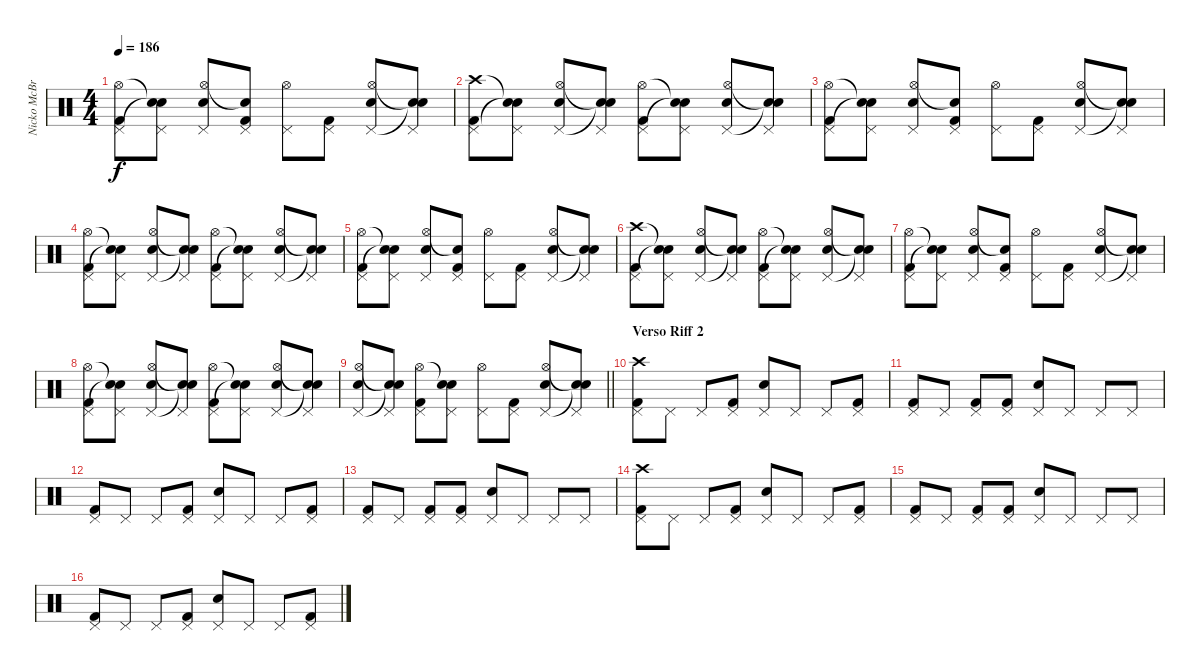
\track ("Nicko McBrain" "Nicko McBr") {instrument percussion}
\staff {score}
\articulation defaults
\ts (4 4)
\tempo 186
\clef neutral
\ks c
("Kick (hit) 2" "Pedal Hi-Hat (hit)" "Hi-Hat (open)").8{dy f} ("Pedal Hi-Hat (hit)" "Snare (hit)"{t} "Snare (hit)"{t}).8 ("Snare (hit) 2" "Pedal Hi-Hat (hit)" "Hi-Hat (open)").8 ("Kick (hit) 2" "Pedal Hi-Hat (hit)" "Snare (hit)"{t}).8 ("Pedal Hi-Hat (hit)" "Hi-Hat (open)").8 ("Kick (hit) 2" "Pedal Hi-Hat (hit)").8 ("Snare (hit) 2" "Pedal Hi-Hat (hit)" "Hi-Hat (open)").8 ("Pedal Hi-Hat (hit)" "Snare (hit)"{t} "Snare (hit)"{t}).8 |
("Kick (hit) 2" "Pedal Hi-Hat (hit)" "Crash high (hit)").8 ("Pedal Hi-Hat (hit)" "Snare (hit)"{t} "Snare (hit)"{t}).8 ("Snare (hit) 2" "Pedal Hi-Hat (hit)" "Hi-Hat (open)").8 ("Pedal Hi-Hat (hit)" "Snare (hit)"{t} "Snare (hit)"{t}).8 ("Kick (hit) 2" "Pedal Hi-Hat (hit)" "Hi-Hat (open)").8 ("Pedal Hi-Hat (hit)" "Snare (hit)"{t} "Snare (hit)"{t}).8 ("Snare (hit) 2" "Pedal Hi-Hat (hit)" "Hi-Hat (open)").8 ("Pedal Hi-Hat (hit)" "Snare (hit)"{t} "Snare (hit)"{t}).8 |
("Kick (hit) 2" "Pedal Hi-Hat (hit)" "Hi-Hat (open)").8 ("Pedal Hi-Hat (hit)" "Snare (hit)"{t} "Snare (hit)"{t}).8 ("Snare (hit) 2" "Pedal Hi-Hat (hit)" "Hi-Hat (open)").8 ("Kick (hit) 2" "Pedal Hi-Hat (hit)" "Snare (hit)"{t}).8 ("Pedal Hi-Hat (hit)" "Hi-Hat (open)").8 ("Kick (hit) 2" "Pedal Hi-Hat (hit)").8 ("Snare (hit) 2" "Pedal Hi-Hat (hit)" "Hi-Hat (open)").8 ("Pedal Hi-Hat (hit)" "Snare (hit)"{t} "Snare (hit)"{t}).8 |
("Kick (hit) 2" "Pedal Hi-Hat (hit)" "Hi-Hat (open)").8 ("Pedal Hi-Hat (hit)" "Snare (hit)"{t} "Snare (hit)"{t}).8 ("Snare (hit) 2" "Pedal Hi-Hat (hit)" "Hi-Hat (open)").8 ("Pedal Hi-Hat (hit)" "Snare (hit)"{t} "Snare (hit)"{t}).8 ("Kick (hit) 2" "Pedal Hi-Hat (hit)" "Hi-Hat (open)").8 ("Pedal Hi-Hat (hit)" "Snare (hit)"{t} "Snare (hit)"{t}).8 ("Snare (hit) 2" "Pedal Hi-Hat (hit)" "Hi-Hat (open)").8 ("Pedal Hi-Hat (hit)" "Snare (hit)"{t} "Snare (hit)"{t}).8 |
("Kick (hit) 2" "Pedal Hi-Hat (hit)" "Hi-Hat (open)").8 ("Pedal Hi-Hat (hit)" "Snare (hit)"{t} "Snare (hit)"{t}).8 ("Snare (hit) 2" "Pedal Hi-Hat (hit)" "Hi-Hat (open)").8 ("Kick (hit) 2" "Pedal Hi-Hat (hit)" "Snare (hit)"{t}).8 ("Pedal Hi-Hat (hit)" "Hi-Hat (open)").8 ("Kick (hit) 2" "Pedal Hi-Hat (hit)").8 ("Snare (hit) 2" "Pedal Hi-Hat (hit)" "Hi-Hat (open)").8 ("Pedal Hi-Hat (hit)" "Snare (hit)"{t} "Snare (hit)"{t}).8 |
("Kick (hit) 2" "Pedal Hi-Hat (hit)" "Crash high (hit)").8 ("Pedal Hi-Hat (hit)" "Snare (hit)"{t} "Snare (hit)"{t}).8 ("Snare (hit) 2" "Pedal Hi-Hat (hit)" "Hi-Hat (open)").8 ("Pedal Hi-Hat (hit)" "Snare (hit)"{t} "Snare (hit)"{t}).8 ("Kick (hit) 2" "Pedal Hi-Hat (hit)" "Hi-Hat (open)").8 ("Pedal Hi-Hat (hit)" "Snare (hit)"{t} "Snare (hit)"{t}).8 ("Snare (hit) 2" "Pedal Hi-Hat (hit)" "Hi-Hat (open)").8 ("Pedal Hi-Hat (hit)" "Snare (hit)"{t} "Snare (hit)"{t}).8 |
("Kick (hit) 2" "Pedal Hi-Hat (hit)" "Hi-Hat (open)").8 ("Pedal Hi-Hat (hit)" "Snare (hit)"{t} "Snare (hit)"{t}).8 ("Snare (hit) 2" "Pedal Hi-Hat (hit)" "Hi-Hat (open)").8 ("Kick (hit) 2" "Pedal Hi-Hat (hit)" "Snare (hit)"{t}).8 ("Pedal Hi-Hat (hit)" "Hi-Hat (open)").8 ("Kick (hit) 2" "Pedal Hi-Hat (hit)").8 ("Snare (hit) 2" "Pedal Hi-Hat (hit)" "Hi-Hat (open)").8 ("Pedal Hi-Hat (hit)" "Snare (hit)"{t} "Snare (hit)"{t}).8 |
("Kick (hit) 2" "Pedal Hi-Hat (hit)" "Hi-Hat (open)").8 ("Pedal Hi-Hat (hit)" "Snare (hit)"{t} "Snare (hit)"{t}).8 ("Snare (hit) 2" "Pedal Hi-Hat (hit)" "Hi-Hat (open)").8 ("Pedal Hi-Hat (hit)" "Snare (hit)"{t} "Snare (hit)"{t}).8 ("Kick (hit) 2" "Pedal Hi-Hat (hit)" "Hi-Hat (open)").8 ("Pedal Hi-Hat (hit)" "Snare (hit)"{t} "Snare (hit)"{t}).8 ("Snare (hit) 2" "Pedal Hi-Hat (hit)" "Hi-Hat (open)").8 ("Pedal Hi-Hat (hit)" "Snare (hit)"{t} "Snare (hit)"{t}).8 |
\barLineRight lightlight
("Snare (hit) 2" "Pedal Hi-Hat (hit)" "Hi-Hat (open)").8 ("Pedal Hi-Hat (hit)" "Snare (hit)"{t} "Snare (hit)"{t}).8 ("Kick (hit) 2" "Pedal Hi-Hat (hit)" "Hi-Hat (open)").8 ("Snare (hit) 2" "Pedal Hi-Hat (hit)" "Snare (hit)"{t}).8 ("Pedal Hi-Hat (hit)" "Hi-Hat (open)").8 ("Kick (hit) 2" "Pedal Hi-Hat (hit)").8 ("Snare (hit) 2" "Pedal Hi-Hat (hit)" "Hi-Hat (open)").8 ("Pedal Hi-Hat (hit)" "Snare (hit)"{t} "Snare (hit)"{t}).8 |
\section ("" "Verso Riff 2")
("Kick (hit) 2" "Pedal Hi-Hat (hit)" "Crash high (hit)").8 "Pedal Hi-Hat (hit)".8 "Pedal Hi-Hat (hit)".8 ("Kick (hit) 2" "Pedal Hi-Hat (hit)").8 ("Snare (hit) 2" "Pedal Hi-Hat (hit)").8 "Pedal Hi-Hat (hit)".8 "Pedal Hi-Hat (hit)".8 ("Kick (hit) 2" "Pedal Hi-Hat (hit)").8 |
("Kick (hit) 2" "Pedal Hi-Hat (hit)").8 "Pedal Hi-Hat (hit)".8 ("Kick (hit) 2" "Pedal Hi-Hat (hit)").8 ("Kick (hit) 2" "Pedal Hi-Hat (hit)").8 ("Snare (hit) 2" "Pedal Hi-Hat (hit)").8 "Pedal Hi-Hat (hit)".8 "Pedal Hi-Hat (hit)".8 "Pedal Hi-Hat (hit)".8 |
("Kick (hit) 2" "Pedal Hi-Hat (hit)").8 "Pedal Hi-Hat (hit)".8 "Pedal Hi-Hat (hit)".8 ("Kick (hit) 2" "Pedal Hi-Hat (hit)").8 ("Snare (hit) 2" "Pedal Hi-Hat (hit)").8 "Pedal Hi-Hat (hit)".8 "Pedal Hi-Hat (hit)".8 ("Kick (hit) 2" "Pedal Hi-Hat (hit)").8 |
("Kick (hit) 2" "Pedal Hi-Hat (hit)").8 "Pedal Hi-Hat (hit)".8 ("Kick (hit) 2" "Pedal Hi-Hat (hit)").8 ("Kick (hit) 2" "Pedal Hi-Hat (hit)").8 ("Snare (hit) 2" "Pedal Hi-Hat (hit)").8 "Pedal Hi-Hat (hit)".8 "Pedal Hi-Hat (hit)".8 "Pedal Hi-Hat (hit)".8 |
("Kick (hit) 2" "Pedal Hi-Hat (hit)" "Crash high (hit)").8 "Pedal Hi-Hat (hit)".8 "Pedal Hi-Hat (hit)".8 ("Kick (hit) 2" "Pedal Hi-Hat (hit)").8 ("Snare (hit) 2" "Pedal Hi-Hat (hit)").8 "Pedal Hi-Hat (hit)".8 "Pedal Hi-Hat (hit)".8 ("Kick (hit) 2" "Pedal Hi-Hat (hit)").8 |
("Kick (hit) 2" "Pedal Hi-Hat (hit)").8 "Pedal Hi-Hat (hit)".8 ("Kick (hit) 2" "Pedal Hi-Hat (hit)").8 ("Kick (hit) 2" "Pedal Hi-Hat (hit)").8 ("Snare (hit) 2" "Pedal Hi-Hat (hit)").8 "Pedal Hi-Hat (hit)".8 "Pedal Hi-Hat (hit)".8 "Pedal Hi-Hat (hit)".8 |
("Kick (hit) 2" "Pedal Hi-Hat (hit)").8 "Pedal Hi-Hat (hit)".8 "Pedal Hi-Hat (hit)".8 ("Kick (hit) 2" "Pedal Hi-Hat (hit)").8 ("Snare (hit) 2" "Pedal Hi-Hat (hit)").8 "Pedal Hi-Hat (hit)".8 "Pedal Hi-Hat (hit)".8 ("Kick (hit) 2" "Pedal Hi-Hat (hit)").8
